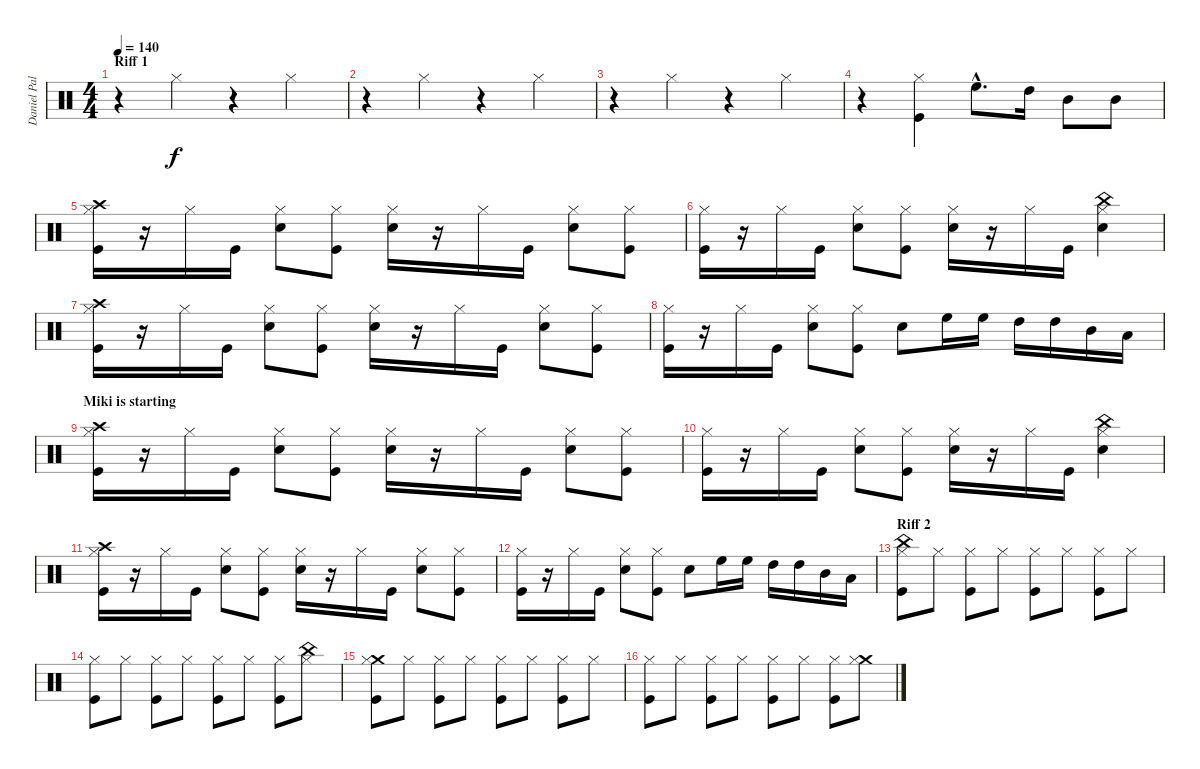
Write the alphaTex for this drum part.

\track ("Daniel Pal" "Daniel Pal") {instrument percussion}
\staff {score}
\articulation defaults
\ts (4 4)
\section ("" "Riff 1")
\tempo 140
\clef neutral
\ks c
r.4{dy f} "Hi-Hat (closed)".4 r.4 "Hi-Hat (closed)".4 |
r.4 "Hi-Hat (closed)".4 r.4 "Hi-Hat (closed)".4 |
r.4 "Hi-Hat (closed)".4 r.4 "Hi-Hat (closed)".4 |
r.4 ("Hi-Hat (closed)" "Kick (hit)").4 "High Floor Tom (hit)"{hac}.8{d} "High Tom (hit)".16 "Mid Tom (hit)".8 "Mid Tom (hit)".8 |
("Crash high (hit)" "Hi-Hat (closed)" "Kick (hit)").16 r.16 "Hi-Hat (closed)".16 "Kick (hit)".16 ("Hi-Hat (closed)" "Electric Snare (hit)").8 ("Hi-Hat (closed)" "Kick (hit)").8 ("Hi-Hat (closed)" "Electric Snare (hit)").16 r.16 "Hi-Hat (closed)".16 "Kick (hit)".16 ("Hi-Hat (closed)" "Electric Snare (hit)").8 ("Hi-Hat (closed)" "Kick (hit)").8 |
("Hi-Hat (closed)" "Kick (hit)").16 r.16 "Hi-Hat (closed)".16 "Kick (hit)".16 ("Hi-Hat (closed)" "Electric Snare (hit)").8 ("Hi-Hat (closed)" "Kick (hit)").8 ("Hi-Hat (closed)" "Electric Snare (hit)").16 r.16 "Hi-Hat (closed)".16 "Kick (hit)".16 ("China (hit)" "Hi-Hat (closed)" "Electric Snare (hit)").4 |
("Crash high (hit)" "Hi-Hat (closed)" "Kick (hit)").16 r.16 "Hi-Hat (closed)".16 "Kick (hit)".16 ("Hi-Hat (closed)" "Electric Snare (hit)").8 ("Hi-Hat (closed)" "Kick (hit)").8 ("Hi-Hat (closed)" "Electric Snare (hit)").16 r.16 "Hi-Hat (closed)".16 "Kick (hit)".16 ("Hi-Hat (closed)" "Electric Snare (hit)").8 ("Hi-Hat (closed)" "Kick (hit)").8 |
("Hi-Hat (closed)" "Kick (hit)").16 r.16 "Hi-Hat (closed)".16 "Kick (hit)".16 ("Hi-Hat (closed)" "Electric Snare (hit)").8 ("Hi-Hat (closed)" "Kick (hit)").8 "Electric Snare (hit)".8 "High Floor Tom (hit)".16 "High Floor Tom (hit)".16 "High Tom (hit)".16 "High Tom (hit)".16 "Mid Tom (hit)".16 "Low Tom (hit)".16 |
\section ("" "Miki is starting")
("Crash high (hit)" "Hi-Hat (closed)" "Kick (hit)").16 r.16 "Hi-Hat (closed)".16 "Kick (hit)".16 ("Hi-Hat (closed)" "Electric Snare (hit)").8 ("Hi-Hat (closed)" "Kick (hit)").8 ("Hi-Hat (closed)" "Electric Snare (hit)").16 r.16 "Hi-Hat (closed)".16 "Kick (hit)".16 ("Hi-Hat (closed)" "Electric Snare (hit)").8 ("Hi-Hat (closed)" "Kick (hit)").8 |
("Hi-Hat (closed)" "Kick (hit)").16 r.16 "Hi-Hat (closed)".16 "Kick (hit)".16 ("Hi-Hat (closed)" "Electric Snare (hit)").8 ("Hi-Hat (closed)" "Kick (hit)").8 ("Hi-Hat (closed)" "Electric Snare (hit)").16 r.16 "Hi-Hat (closed)".16 "Kick (hit)".16 ("China (hit)" "Hi-Hat (closed)" "Electric Snare (hit)").4 |
("Crash high (hit)" "Hi-Hat (closed)" "Kick (hit)").16 r.16 "Hi-Hat (closed)".16 "Kick (hit)".16 ("Hi-Hat (closed)" "Electric Snare (hit)").8 ("Hi-Hat (closed)" "Kick (hit)").8 ("Hi-Hat (closed)" "Electric Snare (hit)").16 r.16 "Hi-Hat (closed)".16 "Kick (hit)".16 ("Hi-Hat (closed)" "Electric Snare (hit)").8 ("Hi-Hat (closed)" "Kick (hit)").8 |
("Hi-Hat (closed)" "Kick (hit)").16 r.16 "Hi-Hat (closed)".16 "Kick (hit)".16 ("Hi-Hat (closed)" "Electric Snare (hit)").8 ("Hi-Hat (closed)" "Kick (hit)").8 "Electric Snare (hit)".8 "High Floor Tom (hit)".16 "High Floor Tom (hit)".16 "High Tom (hit)".16 "High Tom (hit)".16 "Mid Tom (hit)".16 "Low Tom (hit)".16 |
\section ("" "Riff 2")
("China (hit)" "Hi-Hat (closed)" "Kick (hit)").8 "Hi-Hat (closed)".8 ("Hi-Hat (closed)" "Kick (hit)").8 "Hi-Hat (closed)".8 ("Hi-Hat (closed)" "Kick (hit)").8 "Hi-Hat (closed)".8 ("Hi-Hat (closed)" "Kick (hit)").8 "Hi-Hat (closed)".8 |
("Hi-Hat (closed)" "Kick (hit)").8 "Hi-Hat (closed)".8 ("Hi-Hat (closed)" "Kick (hit)").8 "Hi-Hat (closed)".8 ("Hi-Hat (closed)" "Kick (hit)").8 "Hi-Hat (closed)".8 ("Hi-Hat (closed)" "Kick (hit)").8 ("China (hit)" "Hi-Hat (closed)").8 |
("Crash medium (hit)" "Hi-Hat (closed)" "Kick (hit)").8 "Hi-Hat (closed)".8 ("Hi-Hat (closed)" "Kick (hit)").8 "Hi-Hat (closed)".8 ("Hi-Hat (closed)" "Kick (hit)").8 "Hi-Hat (closed)".8 ("Hi-Hat (closed)" "Kick (hit)").8 "Hi-Hat (closed)".8 |
("Hi-Hat (closed)" "Kick (hit)").8 "Hi-Hat (closed)".8 ("Hi-Hat (closed)" "Kick (hit)").8 "Hi-Hat (closed)".8 ("Hi-Hat (closed)" "Kick (hit)").8 "Hi-Hat (closed)".8 ("Hi-Hat (closed)" "Kick (hit)").8 ("Crash medium (hit)" "Hi-Hat (closed)").8
